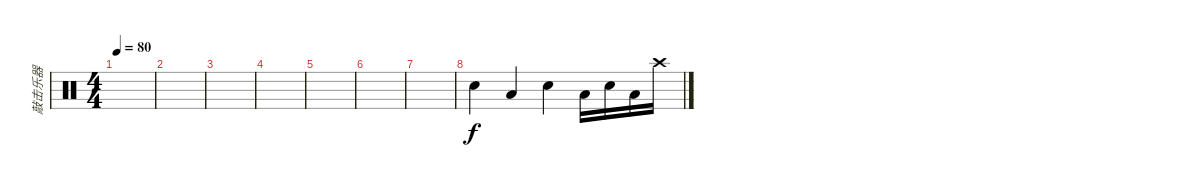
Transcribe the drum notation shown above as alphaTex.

\track ("敲击乐器" "敲击乐器") {instrument percussion}
\staff {score}
\articulation defaults
\ts (4 4)
\tempo 80
\clef neutral
\ks c
|
|
|
|
|
|
|
"Electric Snare (hit)".4 "Low Floor Tom (hit)".4 "Electric Snare (hit)".4 "Low Floor Tom (hit)".16 "Electric Snare (hit)".16 "Low Floor Tom (hit)".16 "Crash high (hit)".16
